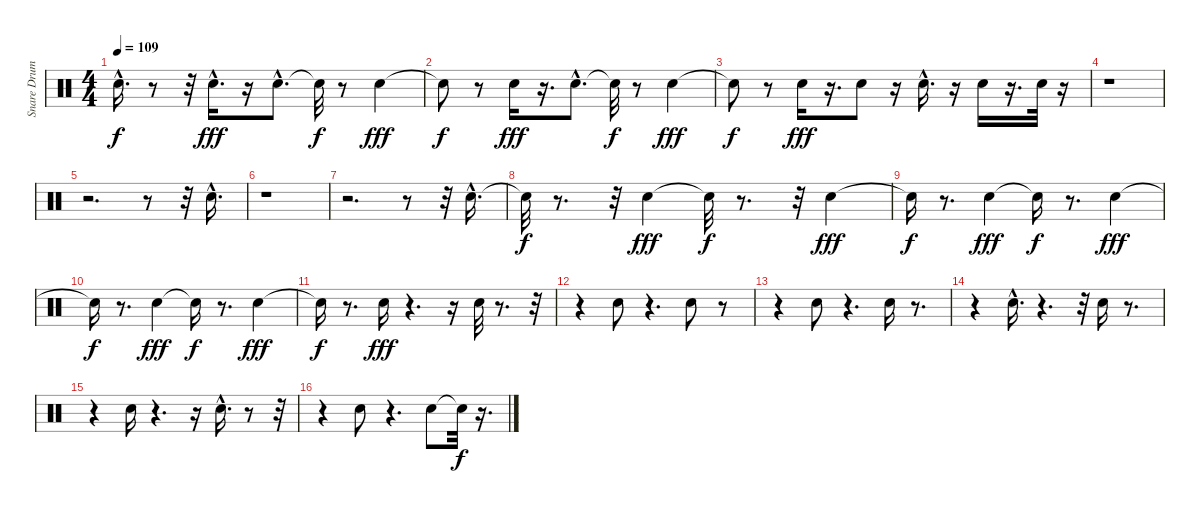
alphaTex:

\track ("Snare Drum      " "Snare Drum") {instrument percussion}
\staff {score}
\articulation defaults
\ts (4 4)
\tempo 109
\clef neutral
\ks c "Snare (hit)"{hac t}.16{d dy f}
r.8 r.32 "Electric Snare (hit)"{hac}.16{d dy fff} r.16 "Electric Snare (hit)"{hac}.8{d} "Snare (hit)"{t}.32{dy f} r.8 "Electric Snare (hit)".4{dy fff} |
"Snare (hit)"{t}.8{dy f} r.8 "Electric Snare (hit)".16{dy fff} r.16{d} "Electric Snare (hit)"{hac}.8{d} "Snare (hit)"{t}.32{dy f} r.8 "Electric Snare (hit)".4{dy fff} |
"Snare (hit)"{t}.8{dy f} r.8 "Electric Snare (hit)".16{dy fff} r.16{d} "Electric Snare (hit)".8 r.16 "Electric Snare (hit)"{hac}.16{d} r.16 "Electric Snare (hit)".16 r.16{d} "Electric Snare (hit)".32 r.16 |
r.1 |
r.2{d} r.8 r.32 "Electric Snare (hit)"{hac}.16{d} |
r.1 |
r.2{d} r.8 r.32 "Electric Snare (hit)"{hac}.16{d} |
"Snare (hit)"{t}.32{dy f} r.8{d} r.32 "Electric Snare (hit)".4{dy fff} "Snare (hit)"{t}.32{dy f} r.8{d} r.32 "Electric Snare (hit)".4{dy fff} |
"Snare (hit)"{t}.16{dy f} r.8{d} "Electric Snare (hit)".4{dy fff} "Snare (hit)"{t}.16{dy f} r.8{d} "Electric Snare (hit)".4{dy fff} |
"Snare (hit)"{t}.16{dy f} r.8{d} "Electric Snare (hit)".4{dy fff} "Snare (hit)"{t}.16{dy f} r.8{d} "Electric Snare (hit)".4{dy fff} |
"Snare (hit)"{t}.16{dy f} r.8{d} "Electric Snare (hit)".16{dy fff} r.4{d} r.16 "Electric Snare (hit)".32 r.8{d} r.32 |
r.4 "Electric Snare (hit)".8 r.4{d} "Electric Snare (hit)".8 r.8 |
r.4 "Electric Snare (hit)".8 r.4{d} "Electric Snare (hit)".16 r.8{d} |
r.4 "Electric Snare (hit)"{hac}.16{d} r.4{d} r.32 "Electric Snare (hit)".16 r.8{d} |
r.4 "Electric Snare (hit)".16 r.4{d} r.16 "Electric Snare (hit)"{hac}.16{d} r.8 r.32 |
r.4 "Electric Snare (hit)".8 r.4{d} "Electric Snare (hit)".8 "Snare (hit)"{t}.32{dy f} r.16{d}
